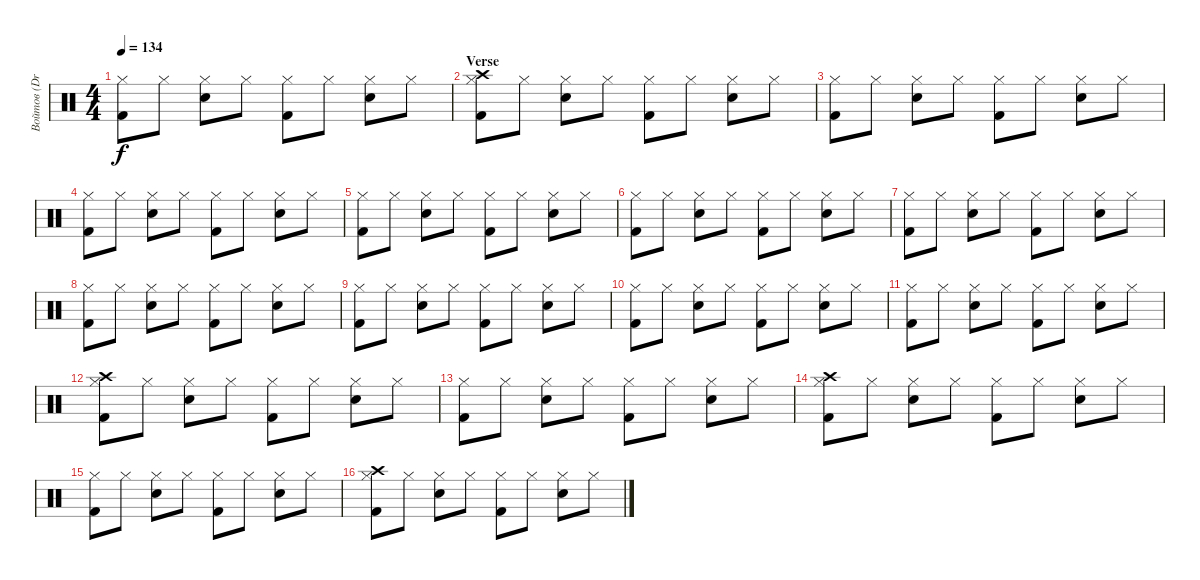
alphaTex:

\track ("Войтов (Drums)" "Войтов (Dr") {instrument percussion}
\staff {score}
\articulation defaults
\ts (4 4)
\tempo 134
\clef neutral
\ks c
("Hi-Hat (closed)" "Kick (hit) 2").8{dy f} "Hi-Hat (closed)".8 ("Hi-Hat (closed)" "Electric Snare (hit)").8 "Hi-Hat (closed)".8 ("Hi-Hat (closed)" "Kick (hit) 2").8 "Hi-Hat (closed)".8 ("Hi-Hat (closed)" "Electric Snare (hit)").8 "Hi-Hat (closed)".8 |
\section ("" "Verse")
("Hi-Hat (closed)" "Kick (hit) 2" "Crash high (hit)").8 "Hi-Hat (closed)".8 ("Hi-Hat (closed)" "Electric Snare (hit)").8 "Hi-Hat (closed)".8 ("Hi-Hat (closed)" "Kick (hit) 2").8 "Hi-Hat (closed)".8 ("Hi-Hat (closed)" "Electric Snare (hit)").8 "Hi-Hat (closed)".8 |
("Hi-Hat (closed)" "Kick (hit) 2").8 "Hi-Hat (closed)".8 ("Hi-Hat (closed)" "Electric Snare (hit)").8 "Hi-Hat (closed)".8 ("Hi-Hat (closed)" "Kick (hit) 2").8 "Hi-Hat (closed)".8 ("Hi-Hat (closed)" "Electric Snare (hit)").8 "Hi-Hat (closed)".8 |
("Hi-Hat (closed)" "Kick (hit) 2").8 "Hi-Hat (closed)".8 ("Hi-Hat (closed)" "Electric Snare (hit)").8 "Hi-Hat (closed)".8 ("Hi-Hat (closed)" "Kick (hit) 2").8 "Hi-Hat (closed)".8 ("Hi-Hat (closed)" "Electric Snare (hit)").8 "Hi-Hat (closed)".8 |
("Hi-Hat (closed)" "Kick (hit) 2").8 "Hi-Hat (closed)".8 ("Hi-Hat (closed)" "Electric Snare (hit)").8 "Hi-Hat (closed)".8 ("Hi-Hat (closed)" "Kick (hit) 2").8 "Hi-Hat (closed)".8 ("Hi-Hat (closed)" "Electric Snare (hit)").8 "Hi-Hat (closed)".8 |
("Hi-Hat (closed)" "Kick (hit) 2").8 "Hi-Hat (closed)".8 ("Hi-Hat (closed)" "Electric Snare (hit)").8 "Hi-Hat (closed)".8 ("Hi-Hat (closed)" "Kick (hit) 2").8 "Hi-Hat (closed)".8 ("Hi-Hat (closed)" "Electric Snare (hit)").8 "Hi-Hat (closed)".8 |
("Hi-Hat (closed)" "Kick (hit) 2").8 "Hi-Hat (closed)".8 ("Hi-Hat (closed)" "Electric Snare (hit)").8 "Hi-Hat (closed)".8 ("Hi-Hat (closed)" "Kick (hit) 2").8 "Hi-Hat (closed)".8 ("Hi-Hat (closed)" "Electric Snare (hit)").8 "Hi-Hat (closed)".8 |
("Hi-Hat (closed)" "Kick (hit) 2").8 "Hi-Hat (closed)".8 ("Hi-Hat (closed)" "Electric Snare (hit)").8 "Hi-Hat (closed)".8 ("Hi-Hat (closed)" "Kick (hit) 2").8 "Hi-Hat (closed)".8 ("Hi-Hat (closed)" "Electric Snare (hit)").8 "Hi-Hat (closed)".8 |
("Hi-Hat (closed)" "Kick (hit) 2").8 "Hi-Hat (closed)".8 ("Hi-Hat (closed)" "Electric Snare (hit)").8 "Hi-Hat (closed)".8 ("Hi-Hat (closed)" "Kick (hit) 2").8 "Hi-Hat (closed)".8 ("Hi-Hat (closed)" "Electric Snare (hit)").8 "Hi-Hat (closed)".8 |
("Hi-Hat (closed)" "Kick (hit) 2").8 "Hi-Hat (closed)".8 ("Hi-Hat (closed)" "Electric Snare (hit)").8 "Hi-Hat (closed)".8 ("Hi-Hat (closed)" "Kick (hit) 2").8 "Hi-Hat (closed)".8 ("Hi-Hat (closed)" "Electric Snare (hit)").8 "Hi-Hat (closed)".8 |
("Hi-Hat (closed)" "Kick (hit) 2").8 "Hi-Hat (closed)".8 ("Hi-Hat (closed)" "Electric Snare (hit)").8 "Hi-Hat (closed)".8 ("Hi-Hat (closed)" "Kick (hit) 2").8 "Hi-Hat (closed)".8 ("Hi-Hat (closed)" "Electric Snare (hit)").8 "Hi-Hat (closed)".8 |
("Hi-Hat (closed)" "Kick (hit) 2" "Crash high (hit)").8 "Hi-Hat (closed)".8 ("Hi-Hat (closed)" "Electric Snare (hit)").8 "Hi-Hat (closed)".8 ("Hi-Hat (closed)" "Kick (hit) 2").8 "Hi-Hat (closed)".8 ("Hi-Hat (closed)" "Electric Snare (hit)").8 "Hi-Hat (closed)".8 |
("Hi-Hat (closed)" "Kick (hit) 2").8 "Hi-Hat (closed)".8 ("Hi-Hat (closed)" "Electric Snare (hit)").8 "Hi-Hat (closed)".8 ("Hi-Hat (closed)" "Kick (hit) 2").8 "Hi-Hat (closed)".8 ("Hi-Hat (closed)" "Electric Snare (hit)").8 "Hi-Hat (closed)".8 |
("Hi-Hat (closed)" "Kick (hit) 2" "Crash high (hit)").8 "Hi-Hat (closed)".8 ("Hi-Hat (closed)" "Electric Snare (hit)").8 "Hi-Hat (closed)".8 ("Hi-Hat (closed)" "Kick (hit) 2").8 "Hi-Hat (closed)".8 ("Hi-Hat (closed)" "Electric Snare (hit)").8 "Hi-Hat (closed)".8 |
("Hi-Hat (closed)" "Kick (hit) 2").8 "Hi-Hat (closed)".8 ("Hi-Hat (closed)" "Electric Snare (hit)").8 "Hi-Hat (closed)".8 ("Hi-Hat (closed)" "Kick (hit) 2").8 "Hi-Hat (closed)".8 ("Hi-Hat (closed)" "Electric Snare (hit)").8 "Hi-Hat (closed)".8 |
("Hi-Hat (closed)" "Kick (hit) 2" "Crash high (hit)").8 "Hi-Hat (closed)".8 ("Hi-Hat (closed)" "Electric Snare (hit)").8 "Hi-Hat (closed)".8 ("Hi-Hat (closed)" "Kick (hit) 2").8 "Hi-Hat (closed)".8 ("Hi-Hat (closed)" "Electric Snare (hit)").8 "Hi-Hat (closed)".8
